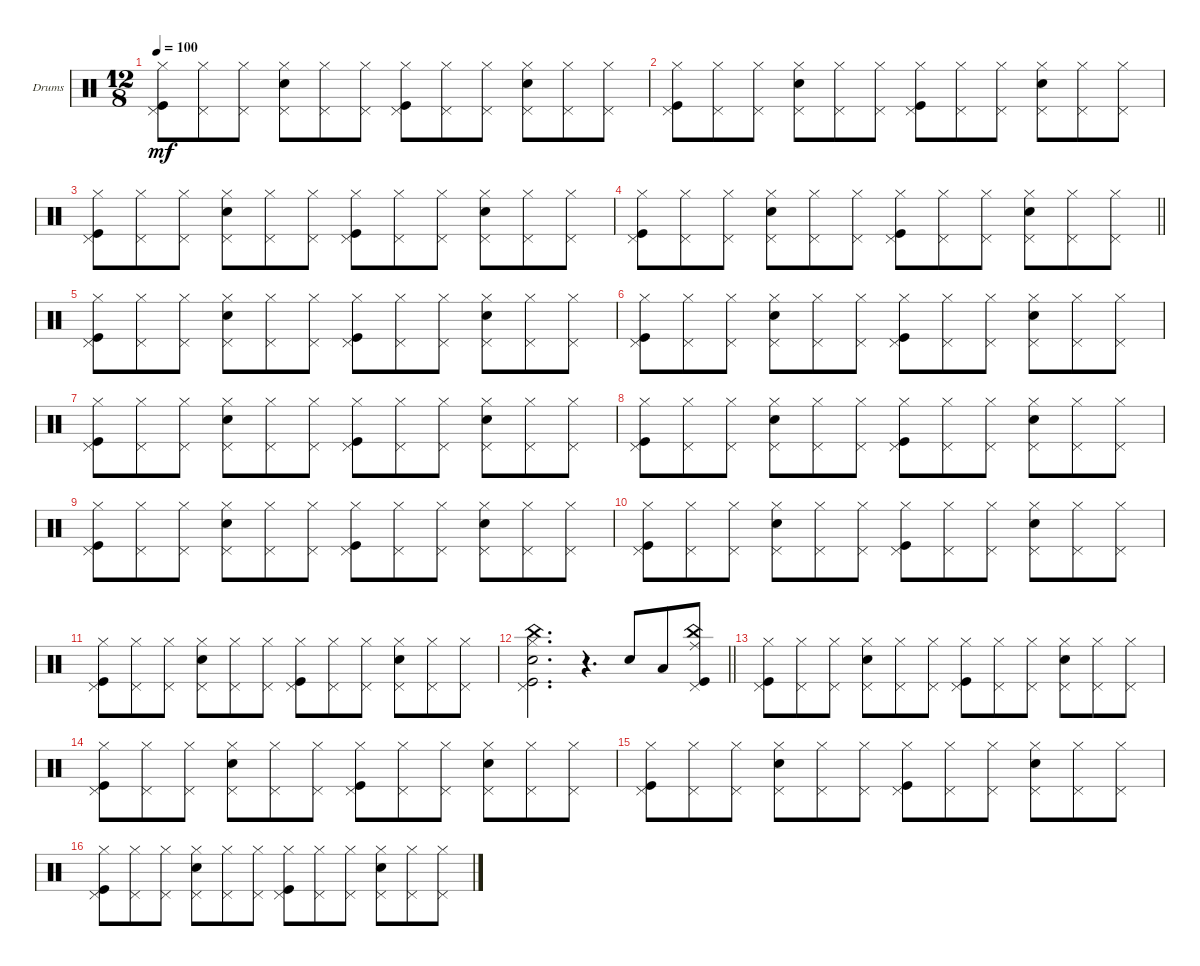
\defaultSystemsLayout 4
\bracketExtendMode nobrackets
\firstSystemTrackNameOrientation horizontal
\otherSystemsTrackNameOrientation horizontal
\track ("Drumkit" "Drums") {instrument percussion}
\staff {score}
\articulation defaults
\ts (12 8)
\tempo 100
\clef neutral
\ks c
("Pedal Hi-Hat (hit)" "Kick (hit)" "Hi-Hat (closed)").8{dy mf} ("Pedal Hi-Hat (hit)" "Hi-Hat (closed)").8 ("Pedal Hi-Hat (hit)" "Hi-Hat (closed)").8 ("Pedal Hi-Hat (hit)" "Snare (hit) 2" "Hi-Hat (closed)").8 ("Pedal Hi-Hat (hit)" "Hi-Hat (closed)").8 ("Pedal Hi-Hat (hit)" "Hi-Hat (closed)").8 ("Pedal Hi-Hat (hit)" "Kick (hit)" "Hi-Hat (closed)").8 ("Pedal Hi-Hat (hit)" "Hi-Hat (closed)").8 ("Pedal Hi-Hat (hit)" "Hi-Hat (closed)").8 ("Pedal Hi-Hat (hit)" "Snare (hit) 2" "Hi-Hat (closed)").8 ("Pedal Hi-Hat (hit)" "Hi-Hat (closed)").8 ("Pedal Hi-Hat (hit)" "Hi-Hat (closed)").8 |
("Pedal Hi-Hat (hit)" "Kick (hit)" "Hi-Hat (closed)").8 ("Pedal Hi-Hat (hit)" "Hi-Hat (closed)").8 ("Pedal Hi-Hat (hit)" "Hi-Hat (closed)").8 ("Pedal Hi-Hat (hit)" "Snare (hit) 2" "Hi-Hat (closed)").8 ("Pedal Hi-Hat (hit)" "Hi-Hat (closed)").8 ("Pedal Hi-Hat (hit)" "Hi-Hat (closed)").8 ("Pedal Hi-Hat (hit)" "Kick (hit)" "Hi-Hat (closed)").8 ("Pedal Hi-Hat (hit)" "Hi-Hat (closed)").8 ("Pedal Hi-Hat (hit)" "Hi-Hat (closed)").8 ("Pedal Hi-Hat (hit)" "Snare (hit) 2" "Hi-Hat (closed)").8 ("Pedal Hi-Hat (hit)" "Hi-Hat (closed)").8 ("Pedal Hi-Hat (hit)" "Hi-Hat (closed)").8 |
("Pedal Hi-Hat (hit)" "Kick (hit)" "Hi-Hat (closed)").8 ("Pedal Hi-Hat (hit)" "Hi-Hat (closed)").8 ("Pedal Hi-Hat (hit)" "Hi-Hat (closed)").8 ("Pedal Hi-Hat (hit)" "Snare (hit) 2" "Hi-Hat (closed)").8 ("Pedal Hi-Hat (hit)" "Hi-Hat (closed)").8 ("Pedal Hi-Hat (hit)" "Hi-Hat (closed)").8 ("Pedal Hi-Hat (hit)" "Kick (hit)" "Hi-Hat (closed)").8 ("Pedal Hi-Hat (hit)" "Hi-Hat (closed)").8 ("Pedal Hi-Hat (hit)" "Hi-Hat (closed)").8 ("Pedal Hi-Hat (hit)" "Snare (hit) 2" "Hi-Hat (closed)").8 ("Pedal Hi-Hat (hit)" "Hi-Hat (closed)").8 ("Pedal Hi-Hat (hit)" "Hi-Hat (closed)").8 |
\barLineRight lightlight
("Pedal Hi-Hat (hit)" "Kick (hit)" "Hi-Hat (closed)").8 ("Pedal Hi-Hat (hit)" "Hi-Hat (closed)").8 ("Pedal Hi-Hat (hit)" "Hi-Hat (closed)").8 ("Pedal Hi-Hat (hit)" "Snare (hit) 2" "Hi-Hat (closed)").8 ("Pedal Hi-Hat (hit)" "Hi-Hat (closed)").8 ("Pedal Hi-Hat (hit)" "Hi-Hat (closed)").8 ("Pedal Hi-Hat (hit)" "Kick (hit)" "Hi-Hat (closed)").8 ("Pedal Hi-Hat (hit)" "Hi-Hat (closed)").8 ("Pedal Hi-Hat (hit)" "Hi-Hat (closed)").8 ("Pedal Hi-Hat (hit)" "Snare (hit) 2" "Hi-Hat (closed)").8 ("Pedal Hi-Hat (hit)" "Hi-Hat (closed)").8 ("Pedal Hi-Hat (hit)" "Hi-Hat (closed)").8 |
("Pedal Hi-Hat (hit)" "Kick (hit)" "Hi-Hat (closed)").8 ("Pedal Hi-Hat (hit)" "Hi-Hat (closed)").8 ("Pedal Hi-Hat (hit)" "Hi-Hat (closed)").8 ("Pedal Hi-Hat (hit)" "Snare (hit) 2" "Hi-Hat (closed)").8 ("Pedal Hi-Hat (hit)" "Hi-Hat (closed)").8 ("Pedal Hi-Hat (hit)" "Hi-Hat (closed)").8 ("Pedal Hi-Hat (hit)" "Kick (hit)" "Hi-Hat (closed)").8 ("Pedal Hi-Hat (hit)" "Hi-Hat (closed)").8 ("Pedal Hi-Hat (hit)" "Hi-Hat (closed)").8 ("Pedal Hi-Hat (hit)" "Snare (hit) 2" "Hi-Hat (closed)").8 ("Pedal Hi-Hat (hit)" "Hi-Hat (closed)").8 ("Pedal Hi-Hat (hit)" "Hi-Hat (closed)").8 |
("Pedal Hi-Hat (hit)" "Kick (hit)" "Hi-Hat (closed)").8 ("Pedal Hi-Hat (hit)" "Hi-Hat (closed)").8 ("Pedal Hi-Hat (hit)" "Hi-Hat (closed)").8 ("Pedal Hi-Hat (hit)" "Snare (hit) 2" "Hi-Hat (closed)").8 ("Pedal Hi-Hat (hit)" "Hi-Hat (closed)").8 ("Pedal Hi-Hat (hit)" "Hi-Hat (closed)").8 ("Pedal Hi-Hat (hit)" "Kick (hit)" "Hi-Hat (closed)").8 ("Pedal Hi-Hat (hit)" "Hi-Hat (closed)").8 ("Pedal Hi-Hat (hit)" "Hi-Hat (closed)").8 ("Pedal Hi-Hat (hit)" "Snare (hit) 2" "Hi-Hat (closed)").8 ("Pedal Hi-Hat (hit)" "Hi-Hat (closed)").8 ("Pedal Hi-Hat (hit)" "Hi-Hat (closed)").8 |
("Pedal Hi-Hat (hit)" "Kick (hit)" "Hi-Hat (closed)").8 ("Pedal Hi-Hat (hit)" "Hi-Hat (closed)").8 ("Pedal Hi-Hat (hit)" "Hi-Hat (closed)").8 ("Pedal Hi-Hat (hit)" "Snare (hit) 2" "Hi-Hat (closed)").8 ("Pedal Hi-Hat (hit)" "Hi-Hat (closed)").8 ("Pedal Hi-Hat (hit)" "Hi-Hat (closed)").8 ("Pedal Hi-Hat (hit)" "Kick (hit)" "Hi-Hat (closed)").8 ("Pedal Hi-Hat (hit)" "Hi-Hat (closed)").8 ("Pedal Hi-Hat (hit)" "Hi-Hat (closed)").8 ("Pedal Hi-Hat (hit)" "Snare (hit) 2" "Hi-Hat (closed)").8 ("Pedal Hi-Hat (hit)" "Hi-Hat (closed)").8 ("Pedal Hi-Hat (hit)" "Hi-Hat (closed)").8 |
("Pedal Hi-Hat (hit)" "Kick (hit)" "Hi-Hat (closed)").8 ("Pedal Hi-Hat (hit)" "Hi-Hat (closed)").8 ("Pedal Hi-Hat (hit)" "Hi-Hat (closed)").8 ("Pedal Hi-Hat (hit)" "Snare (hit) 2" "Hi-Hat (closed)").8 ("Pedal Hi-Hat (hit)" "Hi-Hat (closed)").8 ("Pedal Hi-Hat (hit)" "Hi-Hat (closed)").8 ("Pedal Hi-Hat (hit)" "Kick (hit)" "Hi-Hat (closed)").8 ("Pedal Hi-Hat (hit)" "Hi-Hat (closed)").8 ("Pedal Hi-Hat (hit)" "Hi-Hat (closed)").8 ("Pedal Hi-Hat (hit)" "Snare (hit) 2" "Hi-Hat (closed)").8 ("Pedal Hi-Hat (hit)" "Hi-Hat (closed)").8 ("Pedal Hi-Hat (hit)" "Hi-Hat (closed)").8 |
("Pedal Hi-Hat (hit)" "Kick (hit)" "Hi-Hat (closed)").8 ("Pedal Hi-Hat (hit)" "Hi-Hat (closed)").8 ("Pedal Hi-Hat (hit)" "Hi-Hat (closed)").8 ("Pedal Hi-Hat (hit)" "Snare (hit) 2" "Hi-Hat (closed)").8 ("Pedal Hi-Hat (hit)" "Hi-Hat (closed)").8 ("Pedal Hi-Hat (hit)" "Hi-Hat (closed)").8 ("Pedal Hi-Hat (hit)" "Kick (hit)" "Hi-Hat (closed)").8 ("Pedal Hi-Hat (hit)" "Hi-Hat (closed)").8 ("Pedal Hi-Hat (hit)" "Hi-Hat (closed)").8 ("Pedal Hi-Hat (hit)" "Snare (hit) 2" "Hi-Hat (closed)").8 ("Pedal Hi-Hat (hit)" "Hi-Hat (closed)").8 ("Pedal Hi-Hat (hit)" "Hi-Hat (closed)").8 |
("Pedal Hi-Hat (hit)" "Kick (hit)" "Hi-Hat (closed)").8 ("Pedal Hi-Hat (hit)" "Hi-Hat (closed)").8 ("Pedal Hi-Hat (hit)" "Hi-Hat (closed)").8 ("Pedal Hi-Hat (hit)" "Snare (hit) 2" "Hi-Hat (closed)").8 ("Pedal Hi-Hat (hit)" "Hi-Hat (closed)").8 ("Pedal Hi-Hat (hit)" "Hi-Hat (closed)").8 ("Pedal Hi-Hat (hit)" "Kick (hit)" "Hi-Hat (closed)").8 ("Pedal Hi-Hat (hit)" "Hi-Hat (closed)").8 ("Pedal Hi-Hat (hit)" "Hi-Hat (closed)").8 ("Pedal Hi-Hat (hit)" "Snare (hit) 2" "Hi-Hat (closed)").8 ("Pedal Hi-Hat (hit)" "Hi-Hat (closed)").8 ("Pedal Hi-Hat (hit)" "Hi-Hat (closed)").8 |
("Pedal Hi-Hat (hit)" "Kick (hit)" "Hi-Hat (closed)").8 ("Pedal Hi-Hat (hit)" "Hi-Hat (closed)").8 ("Pedal Hi-Hat (hit)" "Hi-Hat (closed)").8 ("Pedal Hi-Hat (hit)" "Snare (hit) 2" "Hi-Hat (closed)").8 ("Pedal Hi-Hat (hit)" "Hi-Hat (closed)").8 ("Pedal Hi-Hat (hit)" "Hi-Hat (closed)").8 ("Pedal Hi-Hat (hit)" "Kick (hit)" "Hi-Hat (closed)").8 ("Pedal Hi-Hat (hit)" "Hi-Hat (closed)").8 ("Pedal Hi-Hat (hit)" "Hi-Hat (closed)").8 ("Pedal Hi-Hat (hit)" "Snare (hit) 2" "Hi-Hat (closed)").8 ("Pedal Hi-Hat (hit)" "Hi-Hat (closed)").8 ("Pedal Hi-Hat (hit)" "Hi-Hat (closed)").8 |
\barLineRight lightlight
("Hi-Hat (closed)" "China (hit)" "Pedal Hi-Hat (hit)" "Snare (hit) 2" "Kick (hit)").2{d} r.4{d} "Snare (hit) 2".8 "Low Tom (hit)".8 ("Kick (hit)" "China (hit)" "Ride (middle)" "Pedal Hi-Hat (hit)").8 |
("Pedal Hi-Hat (hit)" "Kick (hit)" "Hi-Hat (closed)").8 ("Pedal Hi-Hat (hit)" "Hi-Hat (closed)").8 ("Pedal Hi-Hat (hit)" "Hi-Hat (closed)").8 ("Pedal Hi-Hat (hit)" "Snare (hit) 2" "Hi-Hat (closed)").8 ("Pedal Hi-Hat (hit)" "Hi-Hat (closed)").8 ("Pedal Hi-Hat (hit)" "Hi-Hat (closed)").8 ("Pedal Hi-Hat (hit)" "Kick (hit)" "Hi-Hat (closed)").8 ("Pedal Hi-Hat (hit)" "Hi-Hat (closed)").8 ("Pedal Hi-Hat (hit)" "Hi-Hat (closed)").8 ("Pedal Hi-Hat (hit)" "Snare (hit) 2" "Hi-Hat (closed)").8 ("Pedal Hi-Hat (hit)" "Hi-Hat (closed)").8 ("Pedal Hi-Hat (hit)" "Hi-Hat (closed)").8 |
("Pedal Hi-Hat (hit)" "Kick (hit)" "Hi-Hat (closed)").8 ("Pedal Hi-Hat (hit)" "Hi-Hat (closed)").8 ("Pedal Hi-Hat (hit)" "Hi-Hat (closed)").8 ("Pedal Hi-Hat (hit)" "Snare (hit) 2" "Hi-Hat (closed)").8 ("Pedal Hi-Hat (hit)" "Hi-Hat (closed)").8 ("Pedal Hi-Hat (hit)" "Hi-Hat (closed)").8 ("Pedal Hi-Hat (hit)" "Kick (hit)" "Hi-Hat (closed)").8 ("Pedal Hi-Hat (hit)" "Hi-Hat (closed)").8 ("Pedal Hi-Hat (hit)" "Hi-Hat (closed)").8 ("Pedal Hi-Hat (hit)" "Snare (hit) 2" "Hi-Hat (closed)").8 ("Pedal Hi-Hat (hit)" "Hi-Hat (closed)").8 ("Pedal Hi-Hat (hit)" "Hi-Hat (closed)").8 |
("Pedal Hi-Hat (hit)" "Kick (hit)" "Hi-Hat (closed)").8 ("Pedal Hi-Hat (hit)" "Hi-Hat (closed)").8 ("Pedal Hi-Hat (hit)" "Hi-Hat (closed)").8 ("Pedal Hi-Hat (hit)" "Snare (hit) 2" "Hi-Hat (closed)").8 ("Pedal Hi-Hat (hit)" "Hi-Hat (closed)").8 ("Pedal Hi-Hat (hit)" "Hi-Hat (closed)").8 ("Pedal Hi-Hat (hit)" "Kick (hit)" "Hi-Hat (closed)").8 ("Pedal Hi-Hat (hit)" "Hi-Hat (closed)").8 ("Pedal Hi-Hat (hit)" "Hi-Hat (closed)").8 ("Pedal Hi-Hat (hit)" "Snare (hit) 2" "Hi-Hat (closed)").8 ("Pedal Hi-Hat (hit)" "Hi-Hat (closed)").8 ("Pedal Hi-Hat (hit)" "Hi-Hat (closed)").8 |
("Pedal Hi-Hat (hit)" "Kick (hit)" "Hi-Hat (closed)").8 ("Pedal Hi-Hat (hit)" "Hi-Hat (closed)").8 ("Pedal Hi-Hat (hit)" "Hi-Hat (closed)").8 ("Pedal Hi-Hat (hit)" "Snare (hit) 2" "Hi-Hat (closed)").8 ("Pedal Hi-Hat (hit)" "Hi-Hat (closed)").8 ("Pedal Hi-Hat (hit)" "Hi-Hat (closed)").8 ("Pedal Hi-Hat (hit)" "Kick (hit)" "Hi-Hat (closed)").8 ("Pedal Hi-Hat (hit)" "Hi-Hat (closed)").8 ("Pedal Hi-Hat (hit)" "Hi-Hat (closed)").8 ("Pedal Hi-Hat (hit)" "Snare (hit) 2" "Hi-Hat (closed)").8 ("Pedal Hi-Hat (hit)" "Hi-Hat (closed)").8 ("Pedal Hi-Hat (hit)" "Hi-Hat (closed)").8
